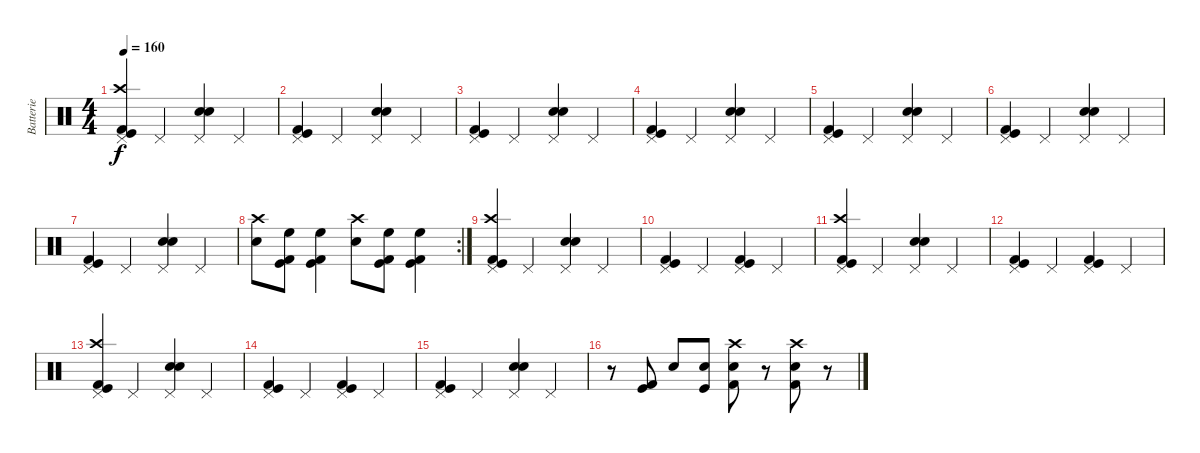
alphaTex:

\track ("Batterie" "Batterie") {instrument percussion}
\staff {score}
\articulation defaults
\ts (4 4)
\tempo 160
\clef neutral
\ks c
("Pedal Hi-Hat (hit)" "Crash high (hit)" "Kick (hit) 2" "Kick (hit)").4{dy f} "Pedal Hi-Hat (hit)".4 ("Pedal Hi-Hat (hit)" "Electric Snare (hit)" "Snare (hit) 2").4 "Pedal Hi-Hat (hit)".4 |
("Pedal Hi-Hat (hit)" "Kick (hit) 2" "Kick (hit)").4 "Pedal Hi-Hat (hit)".4 ("Pedal Hi-Hat (hit)" "Electric Snare (hit)" "Snare (hit) 2").4 "Pedal Hi-Hat (hit)".4 |
("Pedal Hi-Hat (hit)" "Kick (hit) 2" "Kick (hit)").4 "Pedal Hi-Hat (hit)".4 ("Pedal Hi-Hat (hit)" "Electric Snare (hit)" "Snare (hit) 2").4 "Pedal Hi-Hat (hit)".4 |
("Pedal Hi-Hat (hit)" "Kick (hit) 2" "Kick (hit)").4 "Pedal Hi-Hat (hit)".4 ("Pedal Hi-Hat (hit)" "Electric Snare (hit)" "Snare (hit) 2").4 "Pedal Hi-Hat (hit)".4 |
("Pedal Hi-Hat (hit)" "Kick (hit) 2" "Kick (hit)").4 "Pedal Hi-Hat (hit)".4 ("Pedal Hi-Hat (hit)" "Electric Snare (hit)" "Snare (hit) 2").4 "Pedal Hi-Hat (hit)".4 |
("Pedal Hi-Hat (hit)" "Kick (hit) 2" "Kick (hit)").4 "Pedal Hi-Hat (hit)".4 ("Pedal Hi-Hat (hit)" "Electric Snare (hit)" "Snare (hit) 2").4 "Pedal Hi-Hat (hit)".4 |
("Pedal Hi-Hat (hit)" "Kick (hit) 2" "Kick (hit)").4 "Pedal Hi-Hat (hit)".4 ("Pedal Hi-Hat (hit)" "Electric Snare (hit)" "Snare (hit) 2").4 "Pedal Hi-Hat (hit)".4 |
\rc 2
("Electric Snare (hit)" "Crash high (hit)").8 ("Kick (hit) 2" "Kick (hit)" "High Floor Tom (hit)").8 ("Kick (hit) 2" "Kick (hit)" "High Floor Tom (hit)").4 ("Electric Snare (hit)" "Crash high (hit)").8 ("Kick (hit) 2" "Kick (hit)" "High Floor Tom (hit)").8 ("Kick (hit) 2" "Kick (hit)" "High Floor Tom (hit)").4 |
("Crash high (hit)" "Pedal Hi-Hat (hit)" "Kick (hit)" "Kick (hit) 2").4 "Pedal Hi-Hat (hit)".4 ("Pedal Hi-Hat (hit)" "Electric Snare (hit)" "Electric Snare (hit)").4 "Pedal Hi-Hat (hit)".4 |
("Pedal Hi-Hat (hit)" "Kick (hit)" "Kick (hit) 2").4 "Pedal Hi-Hat (hit)".4 ("Pedal Hi-Hat (hit)" "Kick (hit)" "Kick (hit) 2").4 "Pedal Hi-Hat (hit)".4 |
("Crash high (hit)" "Pedal Hi-Hat (hit)" "Kick (hit)" "Kick (hit) 2").4 "Pedal Hi-Hat (hit)".4 ("Pedal Hi-Hat (hit)" "Electric Snare (hit)" "Electric Snare (hit)").4 "Pedal Hi-Hat (hit)".4 |
("Pedal Hi-Hat (hit)" "Kick (hit)" "Kick (hit) 2").4 "Pedal Hi-Hat (hit)".4 ("Pedal Hi-Hat (hit)" "Kick (hit)" "Kick (hit) 2").4 "Pedal Hi-Hat (hit)".4 |
("Crash high (hit)" "Pedal Hi-Hat (hit)" "Kick (hit)" "Kick (hit) 2").4 "Pedal Hi-Hat (hit)".4 ("Pedal Hi-Hat (hit)" "Electric Snare (hit)" "Electric Snare (hit)").4 "Pedal Hi-Hat (hit)".4 |
("Pedal Hi-Hat (hit)" "Kick (hit)" "Kick (hit) 2").4 "Pedal Hi-Hat (hit)".4 ("Pedal Hi-Hat (hit)" "Kick (hit)" "Kick (hit) 2").4 "Pedal Hi-Hat (hit)".4 |
("Pedal Hi-Hat (hit)" "Kick (hit)" "Kick (hit) 2").4 "Pedal Hi-Hat (hit)".4 ("Pedal Hi-Hat (hit)" "Electric Snare (hit)" "Electric Snare (hit)").4 "Pedal Hi-Hat (hit)".4 |
r.8 ("Kick (hit)" "Kick (hit) 2").8 "Electric Snare (hit)".8 ("Snare (hit) 2" "Kick (hit)").8 ("Crash high (hit)" "Snare (hit) 2" "Kick (hit) 2").8 r.8 ("Crash high (hit)" "Electric Snare (hit)" "Kick (hit) 2").8 r.8
